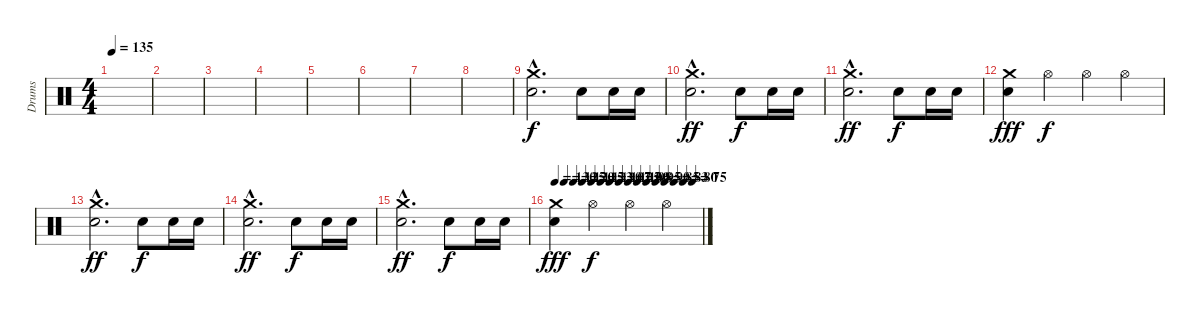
\track ("Drums" "Drums") {instrument percussion}
\staff {score}
\articulation defaults
\ts (4 4)
\tempo 135
\clef neutral
\ks c
|
|
|
|
|
|
|
|
("Snare (hit) 2"{hac} "Crash medium (hit)"{hac}).2{d} "Electric Snare (hit)".8{dy f} "Electric Snare (hit)".16 "Electric Snare (hit)".16 |
("Snare (hit) 2"{hac} "Crash medium (hit)"{hac}).2{d dy ff} "Electric Snare (hit)".8{dy f} "Electric Snare (hit)".16 "Electric Snare (hit)".16 |
("Snare (hit) 2"{hac} "Crash medium (hit)"{hac}).2{d dy ff} "Electric Snare (hit)".8{dy f} "Electric Snare (hit)".16 "Electric Snare (hit)".16 |
("Crash medium (hit)" "Electric Snare (hit)").4{dy fff} "Hi-Hat (open)".4{dy f} "Hi-Hat (open)".4 "Hi-Hat (open)".4 |
("Snare (hit) 2"{hac} "Crash medium (hit)"{hac}).2{d dy ff} "Electric Snare (hit)".8{dy f} "Electric Snare (hit)".16 "Electric Snare (hit)".16 |
("Snare (hit) 2"{hac} "Crash medium (hit)"{hac}).2{d dy ff} "Electric Snare (hit)".8{dy f} "Electric Snare (hit)".16 "Electric Snare (hit)".16 |
("Snare (hit) 2"{hac} "Crash medium (hit)"{hac}).2{d dy ff} "Electric Snare (hit)".8{dy f} "Electric Snare (hit)".16 "Electric Snare (hit)".16 |
\tempo 130
\tempo (125 0.0625)
\tempo (120 0.125)
\tempo (115 0.1875)
\tempo (113 0.25)
\tempo (110 0.3125)
\tempo (107 0.375)
\tempo (105 0.4375)
\tempo (100 0.5)
\tempo (98 0.5625)
\tempo (95 0.625)
\tempo (90 0.6875)
\tempo (85 0.75)
\tempo (83 0.8125)
\tempo (80 0.875)
\tempo (75 0.9375)
("Crash medium (hit)" "Electric Snare (hit)").4{dy fff} "Hi-Hat (open)".4{dy f} "Hi-Hat (open)".4 "Hi-Hat (open)".4
